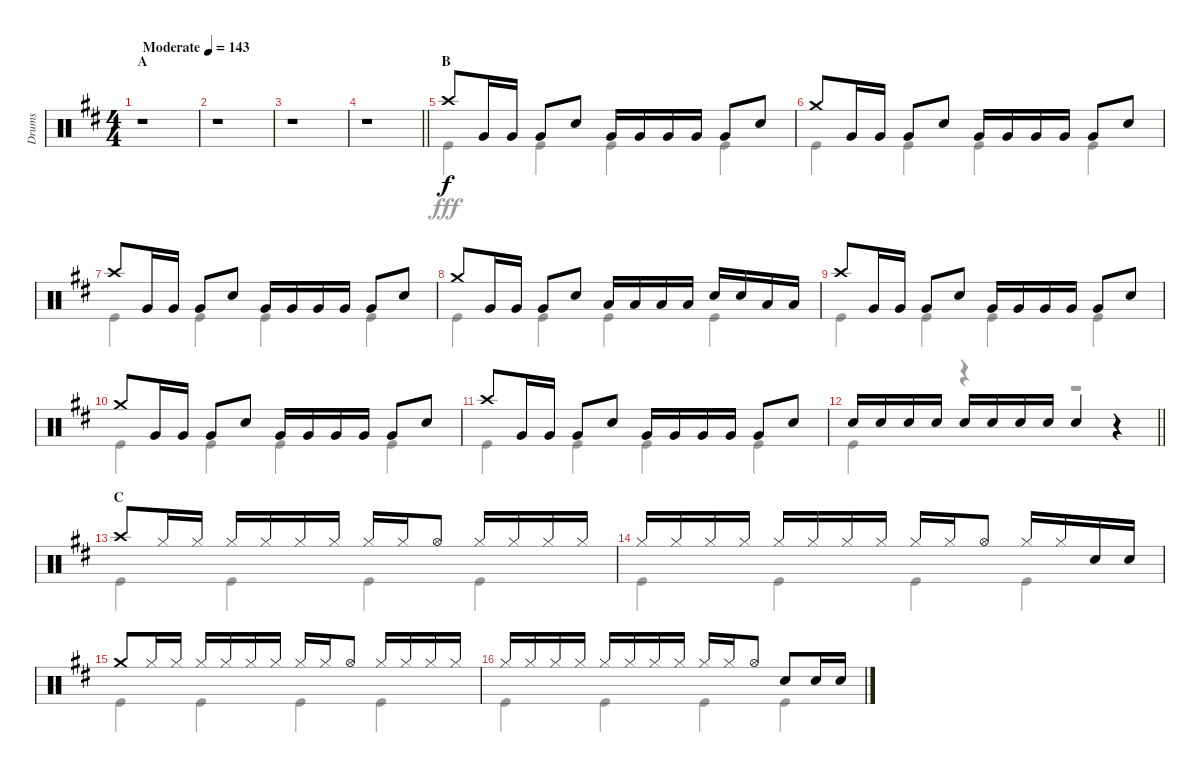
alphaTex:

\track ("Drums" "Drums") {instrument percussion}
\staff {score}
\articulation defaults
\voice
\ts (4 4)
\section ("" "A")
\tempo (143 "Moderate")
\clef neutral
\ks d
r.1{dy f} |
r.1 |
r.1 |
\barLineRight lightlight
r.1 |
\section ("" "B")
"Crash high (hit)".8 "Very Low Tom (hit)".16 "Very Low Tom (hit)".16 "Very Low Tom (hit)".8 "Snare (hit) 2".8 "Very Low Tom (hit)".16 "Very Low Tom (hit)".16 "Very Low Tom (hit)".16 "Very Low Tom (hit)".16 "Very Low Tom (hit)".8 "Snare (hit) 2".8 |
"Crash medium (hit)".8 "Very Low Tom (hit)".16 "Very Low Tom (hit)".16 "Very Low Tom (hit)".8 "Snare (hit) 2".8 "Very Low Tom (hit)".16 "Very Low Tom (hit)".16 "Very Low Tom (hit)".16 "Very Low Tom (hit)".16 "Very Low Tom (hit)".8 "Snare (hit) 2".8 |
"Crash high (hit)".8 "Very Low Tom (hit)".16 "Very Low Tom (hit)".16 "Very Low Tom (hit)".8 "Snare (hit) 2".8 "Very Low Tom (hit)".16 "Very Low Tom (hit)".16 "Very Low Tom (hit)".16 "Very Low Tom (hit)".16 "Very Low Tom (hit)".8 "Snare (hit) 2".8 |
"Crash medium (hit)".8 "Very Low Tom (hit)".16 "Very Low Tom (hit)".16 "Very Low Tom (hit)".8 "Snare (hit) 2".8 "Low Tom (hit)".16 "Low Tom (hit)".16 "Low Tom (hit)".16 "Low Tom (hit)".16 "Snare (hit) 2".16 "Snare (hit) 2".16 "Low Tom (hit)".16 "Low Tom (hit)".16 |
"Crash high (hit)".8 "Very Low Tom (hit)".16 "Very Low Tom (hit)".16 "Very Low Tom (hit)".8 "Snare (hit) 2".8 "Very Low Tom (hit)".16 "Very Low Tom (hit)".16 "Very Low Tom (hit)".16 "Very Low Tom (hit)".16 "Very Low Tom (hit)".8 "Snare (hit) 2".8 |
"Crash medium (hit)".8 "Very Low Tom (hit)".16 "Very Low Tom (hit)".16 "Very Low Tom (hit)".8 "Snare (hit) 2".8 "Very Low Tom (hit)".16 "Very Low Tom (hit)".16 "Very Low Tom (hit)".16 "Very Low Tom (hit)".16 "Very Low Tom (hit)".8 "Snare (hit) 2".8 |
"Crash high (hit)".8 "Very Low Tom (hit)".16 "Very Low Tom (hit)".16 "Very Low Tom (hit)".8 "Snare (hit) 2".8 "Very Low Tom (hit)".16 "Very Low Tom (hit)".16 "Very Low Tom (hit)".16 "Very Low Tom (hit)".16 "Very Low Tom (hit)".8 "Snare (hit) 2".8 |
\barLineRight lightlight "Snare (hit) 2".16 "Snare (hit) 2".16 "Snare (hit) 2".16 "Snare (hit) 2".16 "Snare (hit) 2".16 "Snare (hit) 2".16 "Snare (hit) 2".16 "Snare (hit) 2".16 "Snare (hit) 2".4
r.4 |
\section ("" "C")
"Crash high (hit)".8 "Hi-Hat (closed)".16 "Hi-Hat (closed)".16 "Hi-Hat (closed)".16 "Hi-Hat (closed)".16 "Hi-Hat (closed)".16 "Hi-Hat (closed)".16 "Hi-Hat (closed)".16 "Hi-Hat (closed)".16 "Hi-Hat (open)".8 "Hi-Hat (closed)".16 "Hi-Hat (closed)".16 "Hi-Hat (closed)".16 "Hi-Hat (closed)".16 |
"Hi-Hat (closed)".16 "Hi-Hat (closed)".16 "Hi-Hat (closed)".16 "Hi-Hat (closed)".16 "Hi-Hat (closed)".16 "Hi-Hat (closed)".16 "Hi-Hat (closed)".16 "Hi-Hat (closed)".16 "Hi-Hat (closed)".16 "Hi-Hat (closed)".16 "Hi-Hat (open)".8 "Hi-Hat (closed)".16 "Hi-Hat (closed)".16 "Snare (hit) 2".16 "Snare (hit) 2".16 |
"Crash medium (hit)".8 "Hi-Hat (closed)".16 "Hi-Hat (closed)".16 "Hi-Hat (closed)".16 "Hi-Hat (closed)".16 "Hi-Hat (closed)".16 "Hi-Hat (closed)".16 "Hi-Hat (closed)".16 "Hi-Hat (closed)".16 "Hi-Hat (open)".8 "Hi-Hat (closed)".16 "Hi-Hat (closed)".16 "Hi-Hat (closed)".16 "Hi-Hat (closed)".16 |
"Hi-Hat (closed)".16 "Hi-Hat (closed)".16 "Hi-Hat (closed)".16 "Hi-Hat (closed)".16 "Hi-Hat (closed)".16 "Hi-Hat (closed)".16 "Hi-Hat (closed)".16 "Hi-Hat (closed)".16 "Hi-Hat (closed)".16 "Hi-Hat (closed)".16 "Hi-Hat (open)".8 "Snare (hit) 2".8 "Snare (hit) 2".16 "Snare (hit) 2".16
\voice
\clef neutral
\ottava regular
\simile none
\ks d
r.1{dy fff} |
r.1 |
r.1 |
\barLineRight lightlight
r.1 |
"Kick (hit)".4 "Kick (hit)".4 "Kick (hit)".4 "Kick (hit)".4 |
"Kick (hit)".4 "Kick (hit)".4 "Kick (hit)".4 "Kick (hit)".4 |
"Kick (hit)".4 "Kick (hit)".4 "Kick (hit)".4 "Kick (hit)".4 |
"Kick (hit)".4 "Kick (hit)".4 "Kick (hit)".4 "Kick (hit)".4 |
"Kick (hit)".4 "Kick (hit)".4 "Kick (hit)".4 "Kick (hit)".4 |
"Kick (hit)".4 "Kick (hit)".4 "Kick (hit)".4 "Kick (hit)".4 |
"Kick (hit)".4 "Kick (hit)".4 "Kick (hit)".4 "Kick (hit)".4 |
\barLineRight lightlight "Kick (hit)".4
r.4 r.2 |
"Kick (hit)".4 "Kick (hit)".4 "Kick (hit)".4 "Kick (hit)".4 |
"Kick (hit)".4 "Kick (hit)".4 "Kick (hit)".4 "Kick (hit)".4 |
"Kick (hit)".4 "Kick (hit)".4 "Kick (hit)".4 "Kick (hit)".4 |
"Kick (hit)".4 "Kick (hit)".4 "Kick (hit)".4 "Kick (hit)".4
